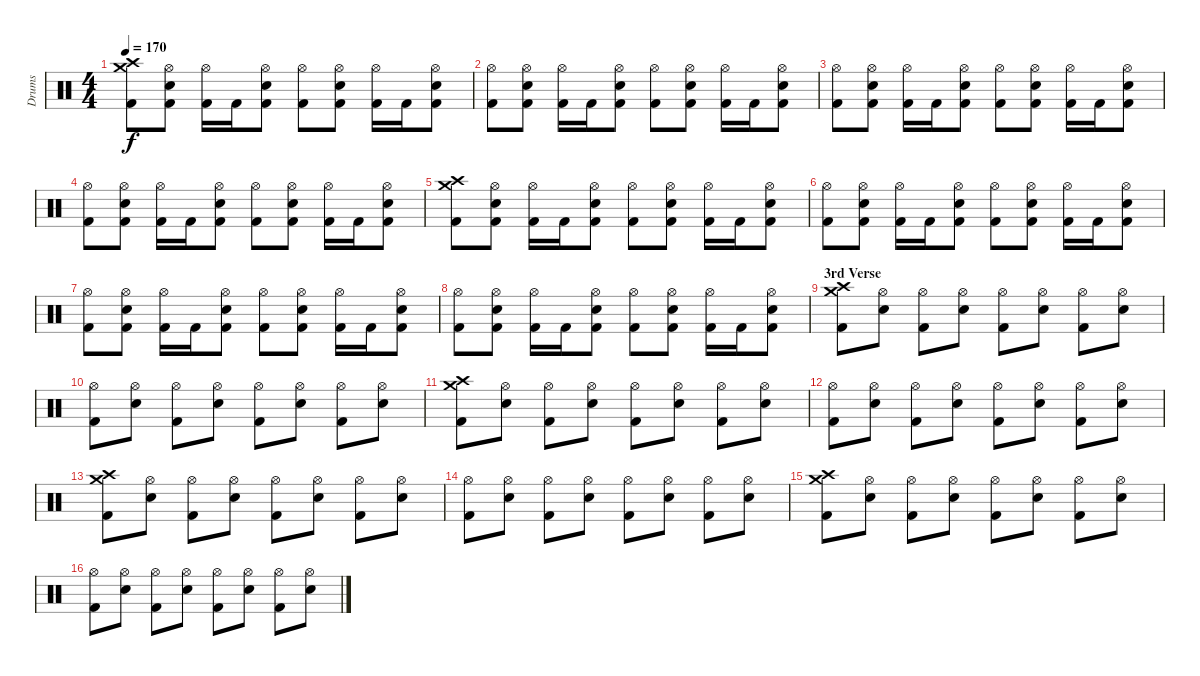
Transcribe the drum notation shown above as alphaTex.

\track ("Drums" "Drums") {instrument percussion}
\staff {score}
\articulation defaults
\ts (4 4)
\tempo 170
\clef neutral
\ks c
("Crash high (hit)" "Crash medium (hit)" "Kick (hit) 2").8{dy f} ("Hi-Hat (open)" "Snare (hit) 2" "Kick (hit) 2").8 ("Hi-Hat (open)" "Kick (hit) 2").16 "Kick (hit) 2".16 ("Hi-Hat (open)" "Snare (hit) 2" "Kick (hit) 2").8 ("Hi-Hat (open)" "Kick (hit) 2").8 ("Hi-Hat (open)" "Snare (hit) 2" "Kick (hit) 2").8 ("Hi-Hat (open)" "Kick (hit) 2").16 "Kick (hit) 2".16 ("Hi-Hat (open)" "Snare (hit) 2" "Kick (hit) 2").8 |
("Hi-Hat (open)" "Kick (hit) 2").8 ("Hi-Hat (open)" "Snare (hit) 2" "Kick (hit) 2").8 ("Hi-Hat (open)" "Kick (hit) 2").16 "Kick (hit) 2".16 ("Hi-Hat (open)" "Snare (hit) 2" "Kick (hit) 2").8 ("Hi-Hat (open)" "Kick (hit) 2").8 ("Hi-Hat (open)" "Snare (hit) 2" "Kick (hit) 2").8 ("Hi-Hat (open)" "Kick (hit) 2").16 "Kick (hit) 2".16 ("Hi-Hat (open)" "Snare (hit) 2" "Kick (hit) 2").8 |
("Hi-Hat (open)" "Kick (hit) 2").8 ("Hi-Hat (open)" "Snare (hit) 2" "Kick (hit) 2").8 ("Hi-Hat (open)" "Kick (hit) 2").16 "Kick (hit) 2".16 ("Hi-Hat (open)" "Snare (hit) 2" "Kick (hit) 2").8 ("Hi-Hat (open)" "Kick (hit) 2").8 ("Hi-Hat (open)" "Snare (hit) 2" "Kick (hit) 2").8 ("Hi-Hat (open)" "Kick (hit) 2").16 "Kick (hit) 2".16 ("Hi-Hat (open)" "Snare (hit) 2" "Kick (hit) 2").8 |
("Hi-Hat (open)" "Kick (hit) 2").8 ("Hi-Hat (open)" "Snare (hit) 2" "Kick (hit) 2").8 ("Hi-Hat (open)" "Kick (hit) 2").16 "Kick (hit) 2".16 ("Hi-Hat (open)" "Snare (hit) 2" "Kick (hit) 2").8 ("Hi-Hat (open)" "Kick (hit) 2").8 ("Hi-Hat (open)" "Snare (hit) 2" "Kick (hit) 2").8 ("Hi-Hat (open)" "Kick (hit) 2").16 "Kick (hit) 2".16 ("Hi-Hat (open)" "Snare (hit) 2" "Kick (hit) 2").8 |
("Crash high (hit)" "Crash medium (hit)" "Kick (hit) 2").8 ("Hi-Hat (open)" "Snare (hit) 2" "Kick (hit) 2").8 ("Hi-Hat (open)" "Kick (hit) 2").16 "Kick (hit) 2".16 ("Hi-Hat (open)" "Snare (hit) 2" "Kick (hit) 2").8 ("Hi-Hat (open)" "Kick (hit) 2").8 ("Hi-Hat (open)" "Snare (hit) 2" "Kick (hit) 2").8 ("Hi-Hat (open)" "Kick (hit) 2").16 "Kick (hit) 2".16 ("Hi-Hat (open)" "Snare (hit) 2" "Kick (hit) 2").8 |
("Hi-Hat (open)" "Kick (hit) 2").8 ("Hi-Hat (open)" "Snare (hit) 2" "Kick (hit) 2").8 ("Hi-Hat (open)" "Kick (hit) 2").16 "Kick (hit) 2".16 ("Hi-Hat (open)" "Snare (hit) 2" "Kick (hit) 2").8 ("Hi-Hat (open)" "Kick (hit) 2").8 ("Hi-Hat (open)" "Snare (hit) 2" "Kick (hit) 2").8 ("Hi-Hat (open)" "Kick (hit) 2").16 "Kick (hit) 2".16 ("Hi-Hat (open)" "Snare (hit) 2" "Kick (hit) 2").8 |
("Hi-Hat (open)" "Kick (hit) 2").8 ("Hi-Hat (open)" "Snare (hit) 2" "Kick (hit) 2").8 ("Hi-Hat (open)" "Kick (hit) 2").16 "Kick (hit) 2".16 ("Hi-Hat (open)" "Snare (hit) 2" "Kick (hit) 2").8 ("Hi-Hat (open)" "Kick (hit) 2").8 ("Hi-Hat (open)" "Snare (hit) 2" "Kick (hit) 2").8 ("Hi-Hat (open)" "Kick (hit) 2").16 "Kick (hit) 2".16 ("Hi-Hat (open)" "Snare (hit) 2" "Kick (hit) 2").8 |
("Hi-Hat (open)" "Kick (hit) 2").8 ("Hi-Hat (open)" "Snare (hit) 2" "Kick (hit) 2").8 ("Hi-Hat (open)" "Kick (hit) 2").16 "Kick (hit) 2".16 ("Hi-Hat (open)" "Snare (hit) 2" "Kick (hit) 2").8 ("Hi-Hat (open)" "Kick (hit) 2").8 ("Hi-Hat (open)" "Snare (hit) 2" "Kick (hit) 2").8 ("Hi-Hat (open)" "Kick (hit) 2").16 "Kick (hit) 2".16 ("Hi-Hat (open)" "Snare (hit) 2" "Kick (hit) 2").8 |
\section ("" "3rd Verse")
("Crash medium (hit)" "Crash high (hit)" "Kick (hit) 2").8 ("Hi-Hat (open)" "Snare (hit) 2").8 ("Hi-Hat (open)" "Kick (hit) 2").8 ("Hi-Hat (open)" "Snare (hit) 2").8 ("Hi-Hat (open)" "Kick (hit) 2").8 ("Hi-Hat (open)" "Snare (hit) 2").8 ("Hi-Hat (open)" "Kick (hit) 2").8 ("Hi-Hat (open)" "Snare (hit) 2").8 |
("Hi-Hat (open)" "Kick (hit) 2").8 ("Hi-Hat (open)" "Snare (hit) 2").8 ("Hi-Hat (open)" "Kick (hit) 2").8 ("Hi-Hat (open)" "Snare (hit) 2").8 ("Hi-Hat (open)" "Kick (hit) 2").8 ("Hi-Hat (open)" "Snare (hit) 2").8 ("Hi-Hat (open)" "Kick (hit) 2").8 ("Hi-Hat (open)" "Snare (hit) 2").8 |
("Crash medium (hit)" "Crash high (hit)" "Kick (hit) 2").8 ("Hi-Hat (open)" "Snare (hit) 2").8 ("Hi-Hat (open)" "Kick (hit) 2").8 ("Hi-Hat (open)" "Snare (hit) 2").8 ("Hi-Hat (open)" "Kick (hit) 2").8 ("Hi-Hat (open)" "Snare (hit) 2").8 ("Hi-Hat (open)" "Kick (hit) 2").8 ("Hi-Hat (open)" "Snare (hit) 2").8 |
("Hi-Hat (open)" "Kick (hit) 2").8 ("Hi-Hat (open)" "Snare (hit) 2").8 ("Hi-Hat (open)" "Kick (hit) 2").8 ("Hi-Hat (open)" "Snare (hit) 2").8 ("Hi-Hat (open)" "Kick (hit) 2").8 ("Hi-Hat (open)" "Snare (hit) 2").8 ("Hi-Hat (open)" "Kick (hit) 2").8 ("Hi-Hat (open)" "Snare (hit) 2").8 |
("Crash medium (hit)" "Crash high (hit)" "Kick (hit) 2").8 ("Hi-Hat (open)" "Snare (hit) 2").8 ("Hi-Hat (open)" "Kick (hit) 2").8 ("Hi-Hat (open)" "Snare (hit) 2").8 ("Hi-Hat (open)" "Kick (hit) 2").8 ("Hi-Hat (open)" "Snare (hit) 2").8 ("Hi-Hat (open)" "Kick (hit) 2").8 ("Hi-Hat (open)" "Snare (hit) 2").8 |
("Hi-Hat (open)" "Kick (hit) 2").8 ("Hi-Hat (open)" "Snare (hit) 2").8 ("Hi-Hat (open)" "Kick (hit) 2").8 ("Hi-Hat (open)" "Snare (hit) 2").8 ("Hi-Hat (open)" "Kick (hit) 2").8 ("Hi-Hat (open)" "Snare (hit) 2").8 ("Hi-Hat (open)" "Kick (hit) 2").8 ("Hi-Hat (open)" "Snare (hit) 2").8 |
("Crash medium (hit)" "Crash high (hit)" "Kick (hit) 2").8 ("Hi-Hat (open)" "Snare (hit) 2").8 ("Hi-Hat (open)" "Kick (hit) 2").8 ("Hi-Hat (open)" "Snare (hit) 2").8 ("Hi-Hat (open)" "Kick (hit) 2").8 ("Hi-Hat (open)" "Snare (hit) 2").8 ("Hi-Hat (open)" "Kick (hit) 2").8 ("Hi-Hat (open)" "Snare (hit) 2").8 |
("Hi-Hat (open)" "Kick (hit) 2").8 ("Hi-Hat (open)" "Snare (hit) 2").8 ("Hi-Hat (open)" "Kick (hit) 2").8 ("Hi-Hat (open)" "Snare (hit) 2").8 ("Hi-Hat (open)" "Kick (hit) 2").8 ("Hi-Hat (open)" "Snare (hit) 2").8 ("Hi-Hat (open)" "Kick (hit) 2").8 ("Hi-Hat (open)" "Snare (hit) 2").8
